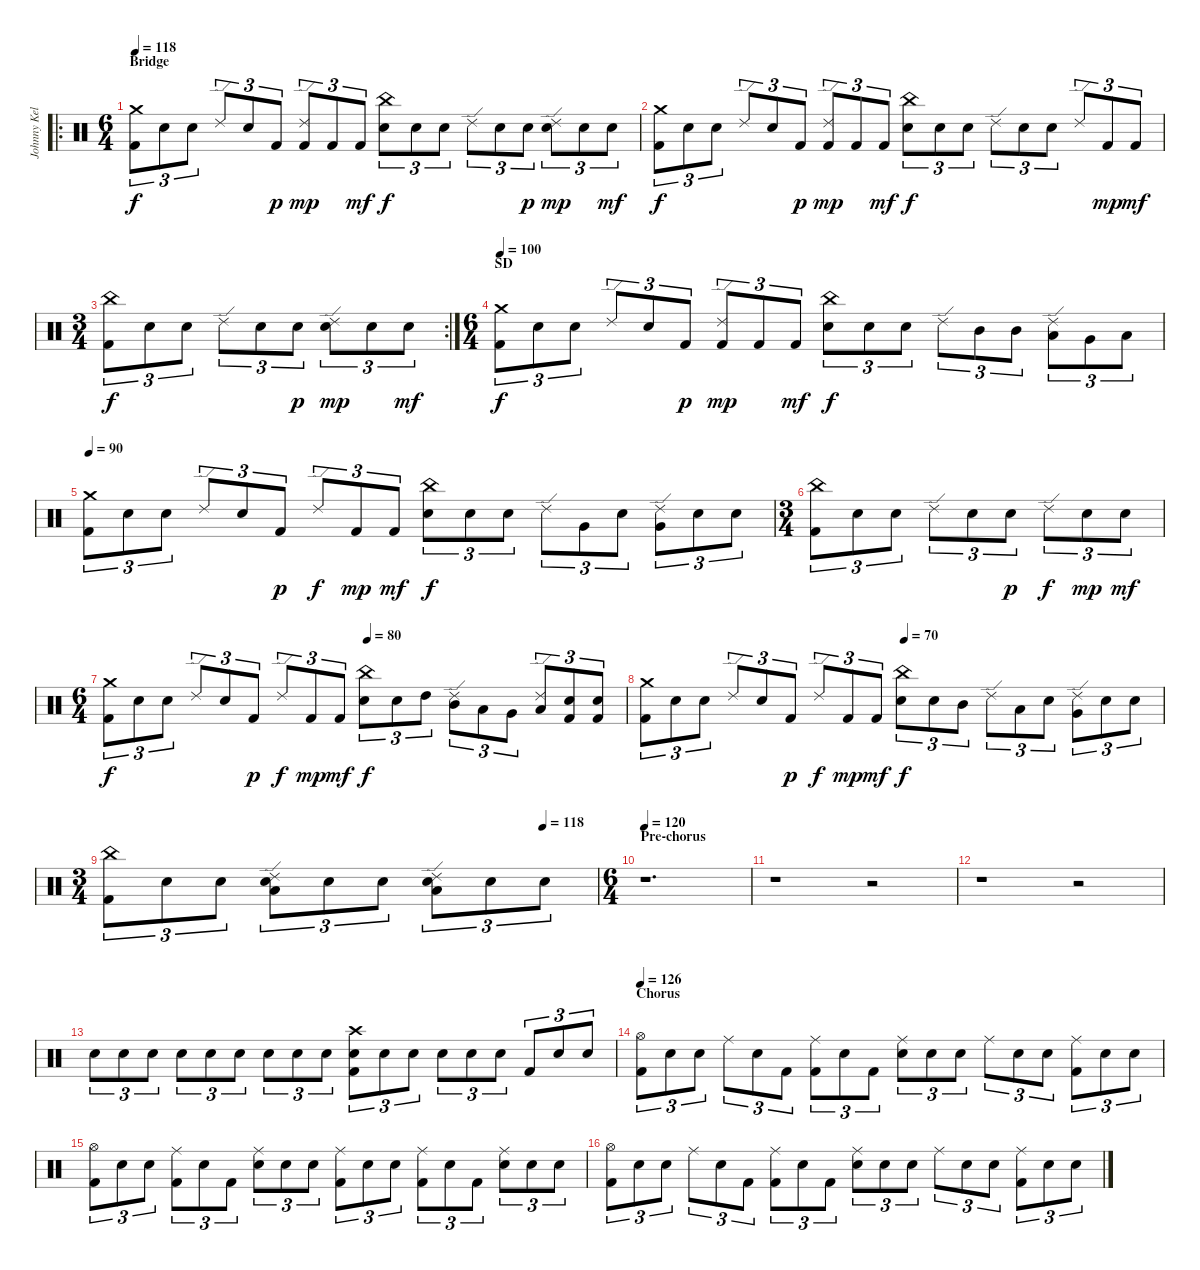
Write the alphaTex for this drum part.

\track ("Johnny Kelly - Drums" "Johnny Kel") {instrument percussion}
\staff {score}
\articulation defaults
\ro
\ts (6 4)
\section ("" "Bridge")
\tempo 118
\clef neutral
\ks c
("Crash medium (hit)" "Kick (hit) 2").8{tu (3 2) dy f volume 16 balance 8} "Snare (hit)".8{tu (3 2)} "Snare (hit)".8{tu (3 2)} "Ride (edge) 2".8{tu (3 2)} "Snare (hit)".8{tu (3 2)} "Kick (hit) 2".8{tu (3 2) dy p} ("Ride (edge) 2" "Kick (hit) 2").8{tu (3 2) dy mp} "Kick (hit) 2".8{tu (3 2)} "Kick (hit) 2".8{tu (3 2) dy mf} ("China (hit)" "Electric Snare (hit)").8{tu (3 2) dy f} "Snare (hit)".8{tu (3 2)} "Snare (hit)".8{tu (3 2)} "Ride (edge) 2".8{tu (3 2)} "Snare (hit)".8{tu (3 2)} "Electric Snare (hit)".8{tu (3 2) dy p} ("Ride (edge) 2" "Electric Snare (hit)").8{tu (3 2) dy mp} "Electric Snare (hit)".8{tu (3 2)} "Electric Snare (hit)".8{tu (3 2) dy mf} |
("Crash medium (hit)" "Kick (hit) 2").8{tu (3 2) dy f} "Snare (hit)".8{tu (3 2)} "Snare (hit)".8{tu (3 2)} "Ride (edge) 2".8{tu (3 2)} "Snare (hit)".8{tu (3 2)} "Kick (hit) 2".8{tu (3 2) dy p} ("Ride (edge) 2" "Kick (hit) 2").8{tu (3 2) dy mp} "Kick (hit) 2".8{tu (3 2)} "Kick (hit) 2".8{tu (3 2) dy mf} ("China (hit)" "Electric Snare (hit)").8{tu (3 2) dy f} "Snare (hit)".8{tu (3 2)} "Snare (hit)".8{tu (3 2)} "Ride (edge) 2".8{tu (3 2)} "Snare (hit)".8{tu (3 2)} "Snare (hit)".8{tu (3 2)} "Ride (edge) 2".8{tu (3 2)} "Kick (hit) 2".8{tu (3 2) dy mp} "Kick (hit) 2".8{tu (3 2) dy mf} |
\rc 2
\ts (3 4)
("China (hit)" "Kick (hit) 2").8{tu (3 2) dy f} "Snare (hit)".8{tu (3 2)} "Snare (hit)".8{tu (3 2)} "Ride (edge) 2".8{tu (3 2)} "Snare (hit)".8{tu (3 2)} "Electric Snare (hit)".8{tu (3 2) dy p} ("Ride (edge) 2" "Electric Snare (hit)").8{tu (3 2) dy mp} "Electric Snare (hit)".8{tu (3 2)} "Electric Snare (hit)".8{tu (3 2) dy mf} |
\ts (6 4)
\section ("" "SD")
\tempo 100
("Crash medium (hit)" "Kick (hit) 2").8{tu (3 2) dy f volume 16 balance 8} "Snare (hit)".8{tu (3 2)} "Snare (hit)".8{tu (3 2)} "Ride (edge) 2".8{tu (3 2)} "Snare (hit)".8{tu (3 2)} "Kick (hit) 2".8{tu (3 2) dy p} ("Ride (edge) 2" "Kick (hit) 2").8{tu (3 2) dy mp} "Kick (hit) 2".8{tu (3 2)} "Kick (hit) 2".8{tu (3 2) dy mf} ("China (hit)" "Electric Snare (hit)").8{tu (3 2) dy f} "Snare (hit)".8{tu (3 2)} "Snare (hit)".8{tu (3 2)} "Ride (edge) 2".8{tu (3 2)} "Mid Tom (hit)".8{tu (3 2)} "Mid Tom (hit)".8{tu (3 2)} ("Ride (edge) 2" "Low Tom (hit)").8{tu (3 2)} "Very Low Tom (hit)".8{tu (3 2)} "Low Floor Tom (hit)".8{tu (3 2)} |
\tempo 90
("Crash medium (hit)" "Kick (hit) 2").8{tu (3 2)} "Snare (hit)".8{tu (3 2)} "Snare (hit)".8{tu (3 2)} "Ride (edge) 2".8{tu (3 2)} "Snare (hit)".8{tu (3 2)} "Kick (hit) 2".8{tu (3 2) dy p} "Ride (edge) 2".8{tu (3 2) dy f} "Kick (hit) 2".8{tu (3 2) dy mp} "Kick (hit) 2".8{tu (3 2) dy mf} ("China (hit)" "Electric Snare (hit)").8{tu (3 2) dy f} "Snare (hit)".8{tu (3 2)} "Electric Snare (hit)".8{tu (3 2)} "Ride (edge) 2".8{tu (3 2)} "Very Low Tom (hit)".8{tu (3 2)} "Snare (hit)".8{tu (3 2)} ("Ride (edge) 2" "Very Low Tom (hit)").8{tu (3 2)} "Snare (hit)".8{tu (3 2)} "Snare (hit)".8{tu (3 2)} |
\ts (3 4)
("China (hit)" "Kick (hit) 2").8{tu (3 2)} "Snare (hit)".8{tu (3 2)} "Snare (hit)".8{tu (3 2)} "Ride (edge) 2".8{tu (3 2)} "Snare (hit)".8{tu (3 2)} "Electric Snare (hit)".8{tu (3 2) dy p} "Ride (edge) 2".8{tu (3 2) dy f} "Electric Snare (hit)".8{tu (3 2) dy mp} "Electric Snare (hit)".8{tu (3 2) dy mf} |
\ts (6 4)
\tempo (80 0.5)
("Crash medium (hit)" "Kick (hit) 2").8{tu (3 2) dy f} "Snare (hit)".8{tu (3 2)} "Snare (hit)".8{tu (3 2)} "Ride (edge) 2".8{tu (3 2)} "Snare (hit)".8{tu (3 2)} "Kick (hit) 2".8{tu (3 2) dy p} "Ride (edge) 2".8{tu (3 2) dy f} "Kick (hit) 2".8{tu (3 2) dy mp} "Kick (hit) 2".8{tu (3 2) dy mf} ("China (hit)" "Electric Snare (hit)").8{tu (3 2) dy f} "Electric Snare (hit)".8{tu (3 2)} "High Tom (hit)".8{tu (3 2)} ("Ride (edge) 2" "Mid Tom (hit)").8{tu (3 2)} "Low Tom (hit)".8{tu (3 2)} "Very Low Tom (hit)".8{tu (3 2)} ("Ride (edge) 2" "Low Floor Tom (hit)").8{tu (3 2)} ("Electric Snare (hit)" "Kick (hit) 2").8{tu (3 2)} ("Electric Snare (hit)" "Kick (hit) 2").8{tu (3 2)} |
\tempo (70 0.5)
("Crash medium (hit)" "Kick (hit) 2").8{tu (3 2)} "Snare (hit)".8{tu (3 2)} "Snare (hit)".8{tu (3 2)} "Ride (edge) 2".8{tu (3 2)} "Snare (hit)".8{tu (3 2)} "Kick (hit) 2".8{tu (3 2) dy p} "Ride (edge) 2".8{tu (3 2) dy f} "Kick (hit) 2".8{tu (3 2) dy mp} "Kick (hit) 2".8{tu (3 2) dy mf} ("China (hit)" "Electric Snare (hit)").8{tu (3 2) dy f} "Snare (hit)".8{tu (3 2)} "Mid Tom (hit)".8{tu (3 2)} "Ride (edge) 2".8{tu (3 2)} "Low Tom (hit)".8{tu (3 2)} "Snare (hit)".8{tu (3 2)} ("Ride (edge) 2" "Very Low Tom (hit)").8{tu (3 2)} "Snare (hit)".8{tu (3 2)} "Snare (hit) 2".8{tu (3 2)} |
\ts (3 4)
\tempo (118 0.8888888888888888)
("China (hit)" "Kick (hit) 2").8{tu (3 2)} "Snare (hit)".8{tu (3 2)} "Snare (hit)".8{tu (3 2)} ("Ride (edge) 2" "Low Floor Tom (hit)" "Snare (hit) 2").8{tu (3 2)} "Snare (hit)".8{tu (3 2)} "Snare (hit)".8{tu (3 2)} ("Ride (edge) 2" "Low Floor Tom (hit)" "Snare (hit) 2").8{tu (3 2)} "Snare (hit)".8{tu (3 2)} "Snare (hit)".8{tu (3 2)} |
\ts (6 4)
\section ("" "Pre-chorus")
\tempo 120
r.1{d volume 16 balance 8} |
r.1 r.2 |
r.1 r.2 |
"Snare (hit)".8{tu (3 2) volume 16 balance 8} "Snare (hit)".8{tu (3 2)} "Snare (hit)".8{tu (3 2)} "Snare (hit)".8{tu (3 2)} "Snare (hit)".8{tu (3 2)} "Snare (hit)".8{tu (3 2)} "Snare (hit)".8{tu (3 2)} "Snare (hit)".8{tu (3 2)} "Snare (hit)".8{tu (3 2)} ("Crash high (hit)" "Electric Snare (hit)" "Kick (hit) 2").8{tu (3 2)} "Snare (hit)".8{tu (3 2)} "Snare (hit)".8{tu (3 2)} "Snare (hit)".8{tu (3 2)} "Snare (hit)".8{tu (3 2)} "Electric Snare (hit)".8{tu (3 2)} "Kick (hit) 2".8{tu (3 2)} "Snare (hit)".8{tu (3 2)} "Electric Snare (hit)".8{tu (3 2)} |
\section ("" "Chorus")
\tempo 126
("Hi-Hat (open)" "Kick (hit) 2").8{tu (3 2) volume 16 balance 8} "Snare (hit)".8{tu (3 2)} "Snare (hit)".8{tu (3 2)} "Ride (middle)".8{tu (3 2)} "Snare (hit)".8{tu (3 2)} "Kick (hit) 2".8{tu (3 2)} ("Ride (middle)" "Kick (hit) 2").8{tu (3 2)} "Snare (hit)".8{tu (3 2)} "Kick (hit) 2".8{tu (3 2)} ("Ride (middle)" "Electric Snare (hit)").8{tu (3 2)} "Snare (hit)".8{tu (3 2)} "Snare (hit)".8{tu (3 2)} "Ride (middle)".8{tu (3 2)} "Snare (hit)".8{tu (3 2)} "Electric Snare (hit)".8{tu (3 2)} ("Ride (middle)" "Kick (hit) 2").8{tu (3 2)} "Snare (hit)".8{tu (3 2)} "Electric Snare (hit)".8{tu (3 2)} |
("Hi-Hat (open)" "Kick (hit) 2").8{tu (3 2)} "Snare (hit)".8{tu (3 2)} "Electric Snare (hit)".8{tu (3 2)} ("Ride (middle)" "Kick (hit) 2").8{tu (3 2)} "Snare (hit)".8{tu (3 2)} "Kick (hit) 2".8{tu (3 2)} ("Ride (middle)" "Electric Snare (hit)").8{tu (3 2)} "Snare (hit)".8{tu (3 2)} "Electric Snare (hit)".8{tu (3 2)} ("Ride (middle)" "Kick (hit) 2").8{tu (3 2)} "Snare (hit)".8{tu (3 2)} "Electric Snare (hit)".8{tu (3 2)} ("Ride (middle)" "Kick (hit) 2").8{tu (3 2)} "Snare (hit)".8{tu (3 2)} "Kick (hit) 2".8{tu (3 2)} ("Ride (middle)" "Electric Snare (hit)").8{tu (3 2)} "Snare (hit)".8{tu (3 2)} "Electric Snare (hit)".8{tu (3 2)} |
("Hi-Hat (open)" "Kick (hit) 2").8{tu (3 2)} "Snare (hit)".8{tu (3 2)} "Snare (hit)".8{tu (3 2)} "Ride (middle)".8{tu (3 2)} "Snare (hit)".8{tu (3 2)} "Kick (hit) 2".8{tu (3 2)} ("Ride (middle)" "Kick (hit) 2").8{tu (3 2)} "Snare (hit)".8{tu (3 2)} "Kick (hit) 2".8{tu (3 2)} ("Ride (middle)" "Electric Snare (hit)").8{tu (3 2)} "Snare (hit)".8{tu (3 2)} "Snare (hit)".8{tu (3 2)} "Ride (middle)".8{tu (3 2)} "Snare (hit)".8{tu (3 2)} "Electric Snare (hit)".8{tu (3 2)} ("Ride (middle)" "Kick (hit) 2").8{tu (3 2)} "Snare (hit)".8{tu (3 2)} "Electric Snare (hit)".8{tu (3 2)}
